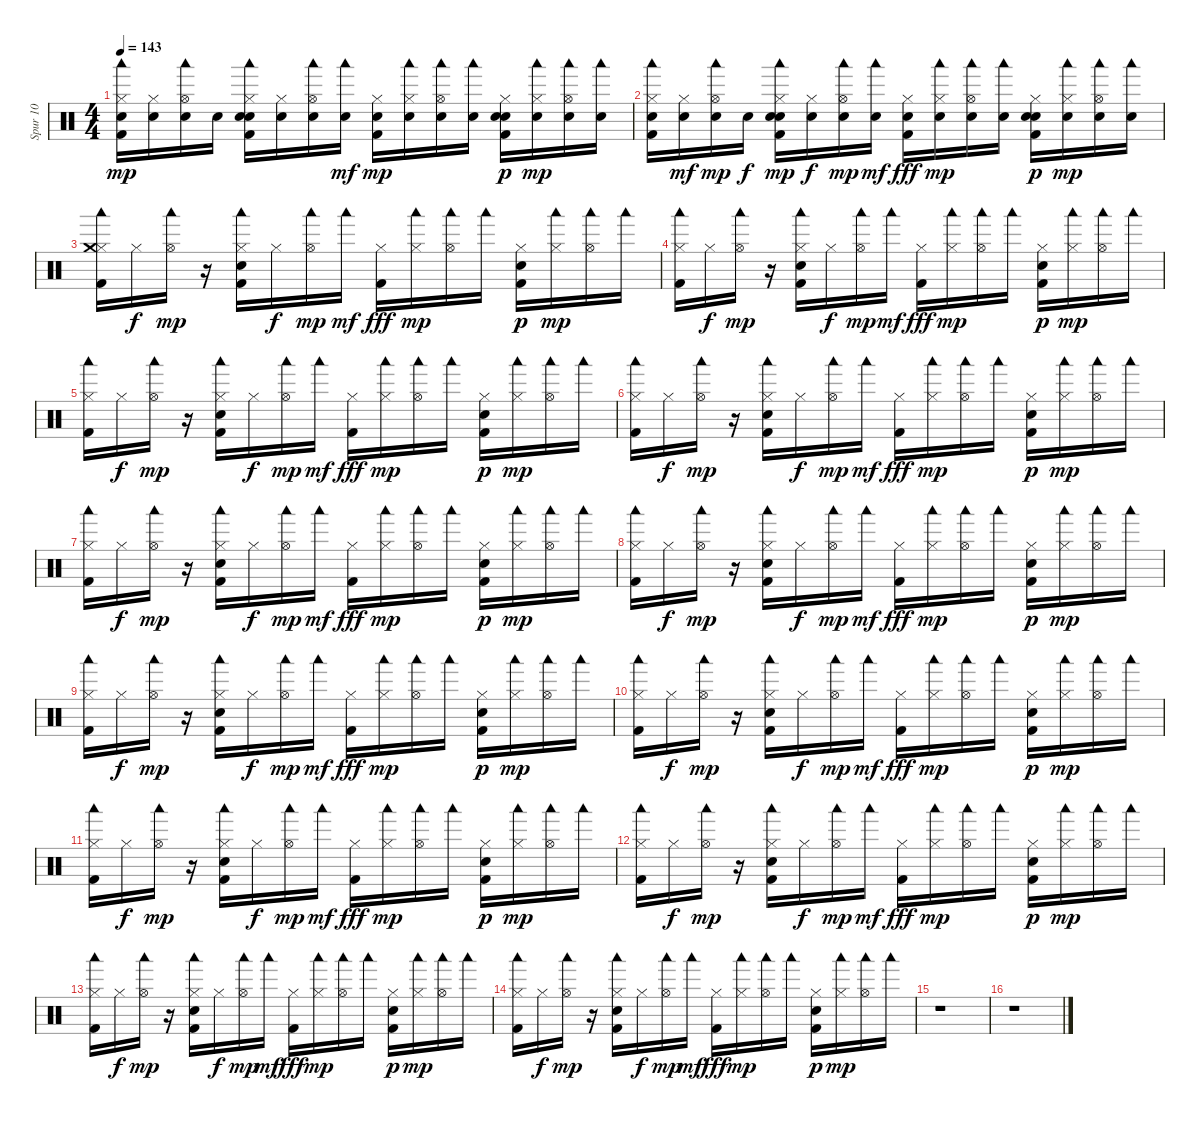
\track ("Spur 10" "Spur 10") {instrument percussion}
\staff {score}
\articulation defaults
\ts (4 4)
\tempo 143
\clef neutral
\ks c
("Hi-Hat (closed)" "Kick (hit) 2" "Snare (hit) 2" "Woodblock low (hit)").16{dy mp} ("Hi-Hat (closed)" "Snare (hit) 2").16 ("Hi-Hat (open)" "Snare (hit) 2" "Woodblock low (hit)").16 "Snare (hit) 2".16 ("Hi-Hat (closed)" "Kick (hit) 2" "Snare (hit) 2" "Electric Snare (hit)" "Woodblock low (hit)").16 ("Hi-Hat (closed)" "Snare (hit) 2").16 ("Hi-Hat (open)" "Snare (hit) 2" "Woodblock low (hit)").16 ("Snare (hit) 2" "Woodblock low (hit)").16{dy mf} ("Hi-Hat (closed)" "Kick (hit) 2" "Snare (hit) 2").16{dy mp} ("Hi-Hat (closed)" "Snare (hit) 2" "Woodblock low (hit)").16 ("Hi-Hat (open)" "Snare (hit) 2" "Woodblock low (hit)").16 ("Snare (hit) 2" "Woodblock low (hit)").16 ("Hi-Hat (closed)" "Kick (hit) 2" "Snare (hit) 2" "Electric Snare (hit)").16{dy p} ("Hi-Hat (closed)" "Snare (hit) 2" "Woodblock low (hit)").16{dy mp} ("Hi-Hat (open)" "Snare (hit) 2" "Woodblock low (hit)").16 ("Snare (hit) 2" "Woodblock low (hit)").16 |
("Snare (hit) 2" "Kick (hit) 2" "Hi-Hat (closed)" "Woodblock low (hit)").16 ("Snare (hit) 2" "Hi-Hat (closed)").16{dy mf} ("Snare (hit) 2" "Hi-Hat (open)" "Woodblock low (hit)").16{dy mp} "Snare (hit) 2".16{dy f} ("Snare (hit) 2" "Kick (hit) 2" "Hi-Hat (closed)" "Electric Snare (hit)" "Woodblock low (hit)").16{dy mp} ("Snare (hit) 2" "Hi-Hat (closed)").16{dy f} ("Snare (hit) 2" "Hi-Hat (open)" "Woodblock low (hit)").16{dy mp} ("Snare (hit) 2" "Woodblock low (hit)").16{dy mf} ("Snare (hit) 2" "Kick (hit) 2" "Hi-Hat (closed)").16{dy fff} ("Snare (hit) 2" "Hi-Hat (closed)" "Woodblock low (hit)").16{dy mp} ("Snare (hit) 2" "Hi-Hat (open)" "Woodblock low (hit)").16 ("Snare (hit) 2" "Woodblock low (hit)").16 ("Snare (hit) 2" "Kick (hit) 2" "Hi-Hat (closed)" "Electric Snare (hit)").16{dy p} ("Snare (hit) 2" "Hi-Hat (closed)" "Woodblock low (hit)").16{dy mp} ("Snare (hit) 2" "Hi-Hat (open)" "Woodblock low (hit)").16 ("Snare (hit) 2" "Woodblock low (hit)").16 |
("Kick (hit) 2" "Hi-Hat (closed)" "Crash medium (hit)" "Woodblock low (hit)").16 "Hi-Hat (closed)".16{dy f} ("Hi-Hat (open)" "Woodblock low (hit)").16{dy mp} r.16 ("Kick (hit) 2" "Hi-Hat (closed)" "Electric Snare (hit)" "Woodblock low (hit)").16 "Hi-Hat (closed)".16{dy f} ("Hi-Hat (open)" "Woodblock low (hit)").16{dy mp} "Woodblock low (hit)".16{dy mf} ("Kick (hit) 2" "Hi-Hat (closed)").16{dy fff} ("Hi-Hat (closed)" "Woodblock low (hit)").16{dy mp} ("Hi-Hat (open)" "Woodblock low (hit)").16 "Woodblock low (hit)".16 ("Kick (hit) 2" "Hi-Hat (closed)" "Electric Snare (hit)").16{dy p} ("Hi-Hat (closed)" "Woodblock low (hit)").16{dy mp} ("Hi-Hat (open)" "Woodblock low (hit)").16 "Woodblock low (hit)".16 |
("Kick (hit) 2" "Hi-Hat (closed)" "Woodblock low (hit)").16 "Hi-Hat (closed)".16{dy f} ("Hi-Hat (open)" "Woodblock low (hit)").16{dy mp} r.16 ("Kick (hit) 2" "Hi-Hat (closed)" "Electric Snare (hit)" "Woodblock low (hit)").16 "Hi-Hat (closed)".16{dy f} ("Hi-Hat (open)" "Woodblock low (hit)").16{dy mp} "Woodblock low (hit)".16{dy mf} ("Kick (hit) 2" "Hi-Hat (closed)").16{dy fff} ("Hi-Hat (closed)" "Woodblock low (hit)").16{dy mp} ("Hi-Hat (open)" "Woodblock low (hit)").16 "Woodblock low (hit)".16 ("Kick (hit) 2" "Hi-Hat (closed)" "Electric Snare (hit)").16{dy p} ("Hi-Hat (closed)" "Woodblock low (hit)").16{dy mp} ("Hi-Hat (open)" "Woodblock low (hit)").16 "Woodblock low (hit)".16 |
("Hi-Hat (closed)" "Kick (hit) 2" "Woodblock low (hit)").16 "Hi-Hat (closed)".16{dy f} ("Hi-Hat (open)" "Woodblock low (hit)").16{dy mp} r.16 ("Hi-Hat (closed)" "Kick (hit) 2" "Electric Snare (hit)" "Woodblock low (hit)").16 "Hi-Hat (closed)".16{dy f} ("Hi-Hat (open)" "Woodblock low (hit)").16{dy mp} "Woodblock low (hit)".16{dy mf} ("Hi-Hat (closed)" "Kick (hit) 2").16{dy fff} ("Hi-Hat (closed)" "Woodblock low (hit)").16{dy mp} ("Hi-Hat (open)" "Woodblock low (hit)").16 "Woodblock low (hit)".16 ("Hi-Hat (closed)" "Kick (hit) 2" "Electric Snare (hit)").16{dy p} ("Hi-Hat (closed)" "Woodblock low (hit)").16{dy mp} ("Hi-Hat (open)" "Woodblock low (hit)").16 "Woodblock low (hit)".16 |
("Hi-Hat (closed)" "Kick (hit) 2" "Woodblock low (hit)").16 "Hi-Hat (closed)".16{dy f} ("Hi-Hat (open)" "Woodblock low (hit)").16{dy mp} r.16 ("Hi-Hat (closed)" "Kick (hit) 2" "Electric Snare (hit)" "Woodblock low (hit)").16 "Hi-Hat (closed)".16{dy f} ("Hi-Hat (open)" "Woodblock low (hit)").16{dy mp} "Woodblock low (hit)".16{dy mf} ("Hi-Hat (closed)" "Kick (hit) 2").16{dy fff} ("Hi-Hat (closed)" "Woodblock low (hit)").16{dy mp} ("Hi-Hat (open)" "Woodblock low (hit)").16 "Woodblock low (hit)".16 ("Hi-Hat (closed)" "Kick (hit) 2" "Electric Snare (hit)").16{dy p} ("Hi-Hat (closed)" "Woodblock low (hit)").16{dy mp} ("Hi-Hat (open)" "Woodblock low (hit)").16 "Woodblock low (hit)".16 |
("Kick (hit) 2" "Hi-Hat (closed)" "Woodblock low (hit)").16 "Hi-Hat (closed)".16{dy f} ("Hi-Hat (open)" "Woodblock low (hit)").16{dy mp} r.16 ("Kick (hit) 2" "Hi-Hat (closed)" "Electric Snare (hit)" "Woodblock low (hit)").16 "Hi-Hat (closed)".16{dy f} ("Hi-Hat (open)" "Woodblock low (hit)").16{dy mp} "Woodblock low (hit)".16{dy mf} ("Kick (hit) 2" "Hi-Hat (closed)").16{dy fff} ("Hi-Hat (closed)" "Woodblock low (hit)").16{dy mp} ("Hi-Hat (open)" "Woodblock low (hit)").16 "Woodblock low (hit)".16 ("Kick (hit) 2" "Hi-Hat (closed)" "Electric Snare (hit)").16{dy p} ("Hi-Hat (closed)" "Woodblock low (hit)").16{dy mp} ("Hi-Hat (open)" "Woodblock low (hit)").16 "Woodblock low (hit)".16 |
("Kick (hit) 2" "Hi-Hat (closed)" "Woodblock low (hit)").16 "Hi-Hat (closed)".16{dy f} ("Hi-Hat (open)" "Woodblock low (hit)").16{dy mp} r.16 ("Kick (hit) 2" "Hi-Hat (closed)" "Electric Snare (hit)" "Woodblock low (hit)").16 "Hi-Hat (closed)".16{dy f} ("Hi-Hat (open)" "Woodblock low (hit)").16{dy mp} "Woodblock low (hit)".16{dy mf} ("Kick (hit) 2" "Hi-Hat (closed)").16{dy fff} ("Hi-Hat (closed)" "Woodblock low (hit)").16{dy mp} ("Hi-Hat (open)" "Woodblock low (hit)").16 "Woodblock low (hit)".16 ("Kick (hit) 2" "Hi-Hat (closed)" "Electric Snare (hit)").16{dy p} ("Hi-Hat (closed)" "Woodblock low (hit)").16{dy mp} ("Hi-Hat (open)" "Woodblock low (hit)").16 "Woodblock low (hit)".16 |
("Hi-Hat (closed)" "Kick (hit) 2" "Woodblock low (hit)").16 "Hi-Hat (closed)".16{dy f} ("Hi-Hat (open)" "Woodblock low (hit)").16{dy mp} r.16 ("Hi-Hat (closed)" "Kick (hit) 2" "Electric Snare (hit)" "Woodblock low (hit)").16 "Hi-Hat (closed)".16{dy f} ("Hi-Hat (open)" "Woodblock low (hit)").16{dy mp} "Woodblock low (hit)".16{dy mf} ("Hi-Hat (closed)" "Kick (hit) 2").16{dy fff} ("Hi-Hat (closed)" "Woodblock low (hit)").16{dy mp} ("Hi-Hat (open)" "Woodblock low (hit)").16 "Woodblock low (hit)".16 ("Hi-Hat (closed)" "Kick (hit) 2" "Electric Snare (hit)").16{dy p} ("Hi-Hat (closed)" "Woodblock low (hit)").16{dy mp} ("Hi-Hat (open)" "Woodblock low (hit)").16 "Woodblock low (hit)".16 |
("Hi-Hat (closed)" "Kick (hit) 2" "Woodblock low (hit)").16 "Hi-Hat (closed)".16{dy f} ("Hi-Hat (open)" "Woodblock low (hit)").16{dy mp} r.16 ("Hi-Hat (closed)" "Kick (hit) 2" "Electric Snare (hit)" "Woodblock low (hit)").16 "Hi-Hat (closed)".16{dy f} ("Hi-Hat (open)" "Woodblock low (hit)").16{dy mp} "Woodblock low (hit)".16{dy mf} ("Hi-Hat (closed)" "Kick (hit) 2").16{dy fff} ("Hi-Hat (closed)" "Woodblock low (hit)").16{dy mp} ("Hi-Hat (open)" "Woodblock low (hit)").16 "Woodblock low (hit)".16 ("Hi-Hat (closed)" "Kick (hit) 2" "Electric Snare (hit)").16{dy p} ("Hi-Hat (closed)" "Woodblock low (hit)").16{dy mp} ("Hi-Hat (open)" "Woodblock low (hit)").16 "Woodblock low (hit)".16 |
("Hi-Hat (closed)" "Kick (hit) 2" "Woodblock low (hit)").16 "Hi-Hat (closed)".16{dy f} ("Hi-Hat (open)" "Woodblock low (hit)").16{dy mp} r.16 ("Hi-Hat (closed)" "Kick (hit) 2" "Electric Snare (hit)" "Woodblock low (hit)").16 "Hi-Hat (closed)".16{dy f} ("Hi-Hat (open)" "Woodblock low (hit)").16{dy mp} "Woodblock low (hit)".16{dy mf} ("Hi-Hat (closed)" "Kick (hit) 2").16{dy fff} ("Hi-Hat (closed)" "Woodblock low (hit)").16{dy mp} ("Hi-Hat (open)" "Woodblock low (hit)").16 "Woodblock low (hit)".16 ("Hi-Hat (closed)" "Kick (hit) 2" "Electric Snare (hit)").16{dy p} ("Hi-Hat (closed)" "Woodblock low (hit)").16{dy mp} ("Hi-Hat (open)" "Woodblock low (hit)").16 "Woodblock low (hit)".16 |
("Hi-Hat (closed)" "Kick (hit) 2" "Woodblock low (hit)").16 "Hi-Hat (closed)".16{dy f} ("Hi-Hat (open)" "Woodblock low (hit)").16{dy mp} r.16 ("Hi-Hat (closed)" "Kick (hit) 2" "Electric Snare (hit)" "Woodblock low (hit)").16 "Hi-Hat (closed)".16{dy f} ("Hi-Hat (open)" "Woodblock low (hit)").16{dy mp} "Woodblock low (hit)".16{dy mf} ("Hi-Hat (closed)" "Kick (hit) 2").16{dy fff} ("Hi-Hat (closed)" "Woodblock low (hit)").16{dy mp} ("Hi-Hat (open)" "Woodblock low (hit)").16 "Woodblock low (hit)".16 ("Hi-Hat (closed)" "Kick (hit) 2" "Electric Snare (hit)").16{dy p} ("Hi-Hat (closed)" "Woodblock low (hit)").16{dy mp} ("Hi-Hat (open)" "Woodblock low (hit)").16 "Woodblock low (hit)".16 |
("Hi-Hat (closed)" "Kick (hit) 2" "Woodblock low (hit)").16 "Hi-Hat (closed)".16{dy f} ("Hi-Hat (open)" "Woodblock low (hit)").16{dy mp} r.16 ("Hi-Hat (closed)" "Kick (hit) 2" "Electric Snare (hit)" "Woodblock low (hit)").16 "Hi-Hat (closed)".16{dy f} ("Hi-Hat (open)" "Woodblock low (hit)").16{dy mp} "Woodblock low (hit)".16{dy mf} ("Hi-Hat (closed)" "Kick (hit) 2").16{dy fff} ("Hi-Hat (closed)" "Woodblock low (hit)").16{dy mp} ("Hi-Hat (open)" "Woodblock low (hit)").16 "Woodblock low (hit)".16 ("Hi-Hat (closed)" "Kick (hit) 2" "Electric Snare (hit)").16{dy p} ("Hi-Hat (closed)" "Woodblock low (hit)").16{dy mp} ("Hi-Hat (open)" "Woodblock low (hit)").16 "Woodblock low (hit)".16 |
("Hi-Hat (closed)" "Kick (hit) 2" "Woodblock low (hit)").16 "Hi-Hat (closed)".16{dy f} ("Hi-Hat (open)" "Woodblock low (hit)").16{dy mp} r.16 ("Hi-Hat (closed)" "Kick (hit) 2" "Electric Snare (hit)" "Woodblock low (hit)").16 "Hi-Hat (closed)".16{dy f} ("Hi-Hat (open)" "Woodblock low (hit)").16{dy mp} "Woodblock low (hit)".16{dy mf} ("Hi-Hat (closed)" "Kick (hit) 2").16{dy fff} ("Hi-Hat (closed)" "Woodblock low (hit)").16{dy mp} ("Hi-Hat (open)" "Woodblock low (hit)").16 "Woodblock low (hit)".16 ("Hi-Hat (closed)" "Kick (hit) 2" "Electric Snare (hit)").16{dy p} ("Hi-Hat (closed)" "Woodblock low (hit)").16{dy mp} ("Hi-Hat (open)" "Woodblock low (hit)").16 "Woodblock low (hit)".16 |
r.1 |
r.1
